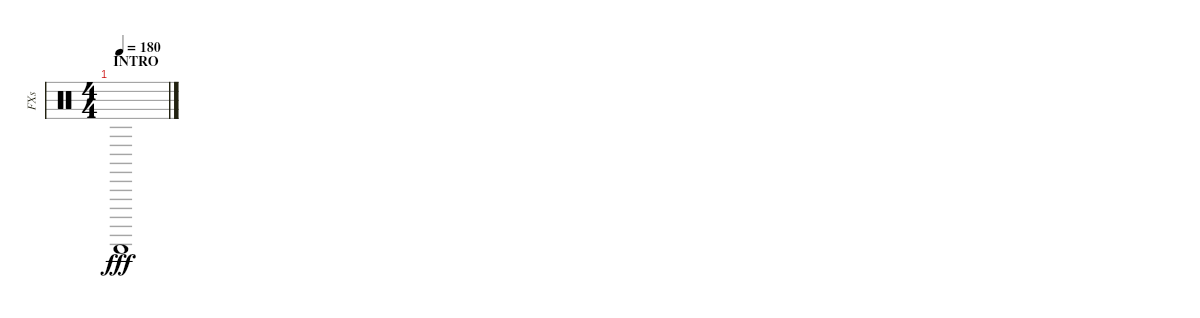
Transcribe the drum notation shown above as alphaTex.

\track ("FXs" "FXs") {instrument percussion}
\staff {score}
\articulation defaults
\ts (4 4)
\section ("" "INTRO")
\tempo 180
\clef neutral
\ks c "Guiro (scrap-return)"{be (custom 0 12 20 12 40 0 60 0)}.1{dy fff}
